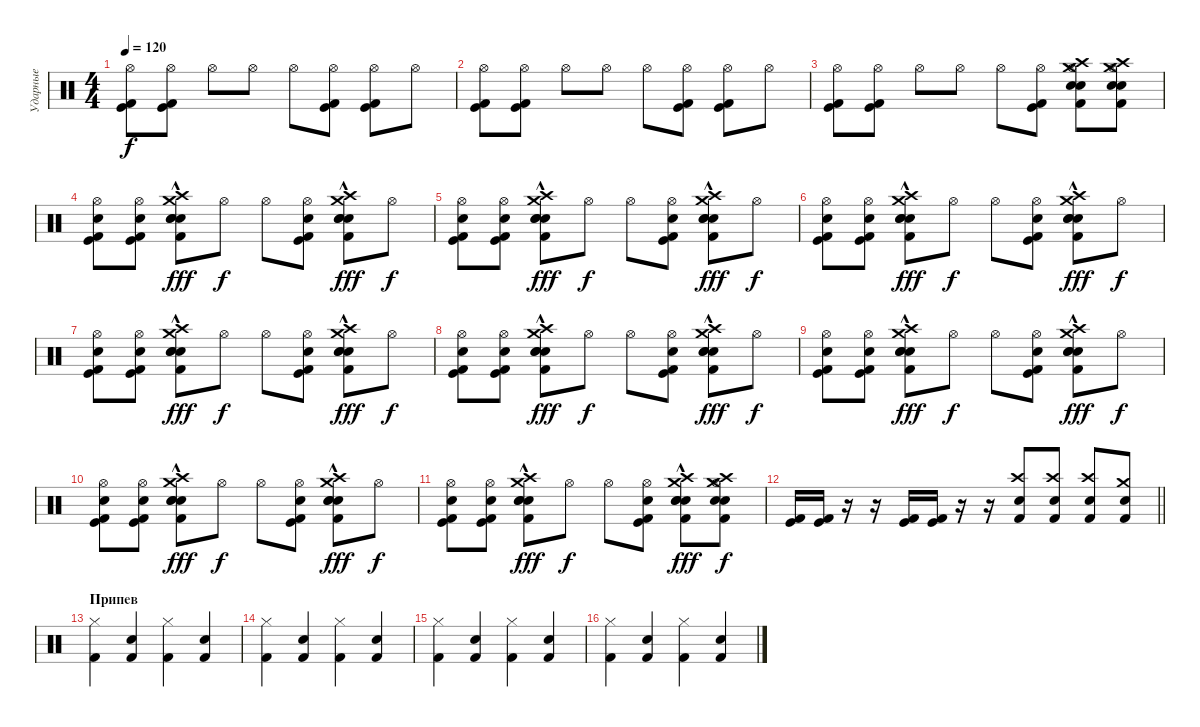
\track ("Ударные" "Ударные") {instrument percussion}
\staff {score}
\articulation defaults
\ts (4 4)
\tempo 120
\clef neutral
\ks c
("Hi-Hat (open)" "Kick (hit)" "Kick (hit) 2").8{dy f} ("Hi-Hat (open)" "Kick (hit)" "Kick (hit) 2").8 "Hi-Hat (open)".8 "Hi-Hat (open)".8 "Hi-Hat (open)".8 ("Hi-Hat (open)" "Kick (hit)" "Kick (hit) 2").8 ("Hi-Hat (open)" "Kick (hit)" "Kick (hit) 2").8 "Hi-Hat (open)".8 |
("Hi-Hat (open)" "Kick (hit)" "Kick (hit) 2").8 ("Hi-Hat (open)" "Kick (hit)" "Kick (hit) 2").8 "Hi-Hat (open)".8 "Hi-Hat (open)".8 "Hi-Hat (open)".8 ("Hi-Hat (open)" "Kick (hit)" "Kick (hit) 2").8 ("Hi-Hat (open)" "Kick (hit)" "Kick (hit) 2").8 "Hi-Hat (open)".8 |
("Hi-Hat (open)" "Kick (hit)" "Kick (hit) 2").8 ("Hi-Hat (open)" "Kick (hit)" "Kick (hit) 2").8 "Hi-Hat (open)".8 "Hi-Hat (open)".8 "Hi-Hat (open)".8 ("Hi-Hat (open)" "Kick (hit)" "Kick (hit) 2").8 ("Hi-Hat (open)" "Electric Snare (hit)" "Crash high (hit)" "Crash medium (hit)" "Snare (hit) 2" "Kick (hit) 2").8 ("Hi-Hat (open)" "Electric Snare (hit)" "Crash high (hit)" "Crash medium (hit)" "Snare (hit) 2" "Kick (hit) 2").8 |
("Hi-Hat (open)" "Electric Snare (hit)" "Kick (hit)" "Kick (hit) 2").8 ("Hi-Hat (open)" "Electric Snare (hit)" "Kick (hit)" "Kick (hit) 2").8 ("Snare (hit) 2" "Crash high (hit)"{hac} "Crash medium (hit)"{hac} "Snare (hit) 2"{hac} "Snare (hit) 2"{hac} "Kick (hit) 2").8{dy fff} "Hi-Hat (open)".8{dy f} "Hi-Hat (open)".8 ("Hi-Hat (open)" "Electric Snare (hit)" "Kick (hit)" "Kick (hit) 2").8 ("Snare (hit) 2" "Crash high (hit)"{hac} "Crash medium (hit)"{hac} "Snare (hit) 2"{hac} "Snare (hit) 2"{hac} "Kick (hit) 2").8{dy fff} "Hi-Hat (open)".8{dy f} |
("Hi-Hat (open)" "Electric Snare (hit)" "Kick (hit)" "Kick (hit) 2").8 ("Hi-Hat (open)" "Electric Snare (hit)" "Kick (hit)" "Kick (hit) 2").8 ("Snare (hit) 2" "Crash high (hit)"{hac} "Crash medium (hit)"{hac} "Snare (hit) 2"{hac} "Snare (hit) 2"{hac} "Kick (hit) 2").8{dy fff} "Hi-Hat (open)".8{dy f} "Hi-Hat (open)".8 ("Hi-Hat (open)" "Electric Snare (hit)" "Kick (hit)" "Kick (hit) 2").8 ("Snare (hit) 2" "Crash high (hit)"{hac} "Crash medium (hit)"{hac} "Snare (hit) 2"{hac} "Snare (hit) 2"{hac} "Kick (hit) 2").8{dy fff} "Hi-Hat (open)".8{dy f} |
("Hi-Hat (open)" "Electric Snare (hit)" "Kick (hit)" "Kick (hit) 2").8 ("Hi-Hat (open)" "Electric Snare (hit)" "Kick (hit)" "Kick (hit) 2").8 ("Snare (hit) 2" "Crash high (hit)"{hac} "Crash medium (hit)"{hac} "Snare (hit) 2"{hac} "Snare (hit) 2"{hac} "Kick (hit) 2").8{dy fff} "Hi-Hat (open)".8{dy f} "Hi-Hat (open)".8 ("Hi-Hat (open)" "Electric Snare (hit)" "Kick (hit)" "Kick (hit) 2").8 ("Snare (hit) 2" "Crash high (hit)"{hac} "Crash medium (hit)"{hac} "Snare (hit) 2"{hac} "Snare (hit) 2"{hac} "Kick (hit) 2").8{dy fff} "Hi-Hat (open)".8{dy f} |
("Hi-Hat (open)" "Electric Snare (hit)" "Kick (hit)" "Kick (hit) 2").8 ("Hi-Hat (open)" "Electric Snare (hit)" "Kick (hit)" "Kick (hit) 2").8 ("Snare (hit) 2" "Crash high (hit)"{hac} "Crash medium (hit)"{hac} "Snare (hit) 2"{hac} "Snare (hit) 2"{hac} "Kick (hit) 2").8{dy fff} "Hi-Hat (open)".8{dy f} "Hi-Hat (open)".8 ("Hi-Hat (open)" "Electric Snare (hit)" "Kick (hit)" "Kick (hit) 2").8 ("Snare (hit) 2" "Crash high (hit)"{hac} "Crash medium (hit)"{hac} "Snare (hit) 2"{hac} "Snare (hit) 2"{hac} "Kick (hit) 2").8{dy fff} "Hi-Hat (open)".8{dy f} |
("Hi-Hat (open)" "Electric Snare (hit)" "Kick (hit)" "Kick (hit) 2").8 ("Hi-Hat (open)" "Electric Snare (hit)" "Kick (hit)" "Kick (hit) 2").8 ("Snare (hit) 2" "Crash high (hit)"{hac} "Crash medium (hit)"{hac} "Snare (hit) 2"{hac} "Snare (hit) 2"{hac} "Kick (hit) 2").8{dy fff} "Hi-Hat (open)".8{dy f} "Hi-Hat (open)".8 ("Hi-Hat (open)" "Electric Snare (hit)" "Kick (hit)" "Kick (hit) 2").8 ("Snare (hit) 2" "Crash high (hit)"{hac} "Crash medium (hit)"{hac} "Snare (hit) 2"{hac} "Snare (hit) 2"{hac} "Kick (hit) 2").8{dy fff} "Hi-Hat (open)".8{dy f} |
("Hi-Hat (open)" "Electric Snare (hit)" "Kick (hit)" "Kick (hit) 2").8 ("Hi-Hat (open)" "Electric Snare (hit)" "Kick (hit)" "Kick (hit) 2").8 ("Snare (hit) 2" "Crash high (hit)"{hac} "Crash medium (hit)"{hac} "Snare (hit) 2"{hac} "Snare (hit) 2"{hac} "Kick (hit) 2").8{dy fff} "Hi-Hat (open)".8{dy f} "Hi-Hat (open)".8 ("Hi-Hat (open)" "Electric Snare (hit)" "Kick (hit)" "Kick (hit) 2").8 ("Snare (hit) 2" "Crash high (hit)"{hac} "Crash medium (hit)"{hac} "Snare (hit) 2"{hac} "Snare (hit) 2"{hac} "Kick (hit) 2").8{dy fff} "Hi-Hat (open)".8{dy f} |
("Hi-Hat (open)" "Electric Snare (hit)" "Kick (hit)" "Kick (hit) 2").8 ("Hi-Hat (open)" "Electric Snare (hit)" "Kick (hit)" "Kick (hit) 2").8 ("Snare (hit) 2" "Crash high (hit)"{hac} "Crash medium (hit)"{hac} "Snare (hit) 2"{hac} "Snare (hit) 2"{hac} "Kick (hit) 2").8{dy fff} "Hi-Hat (open)".8{dy f} "Hi-Hat (open)".8 ("Hi-Hat (open)" "Electric Snare (hit)" "Kick (hit)" "Kick (hit) 2").8 ("Snare (hit) 2" "Crash high (hit)"{hac} "Crash medium (hit)"{hac} "Snare (hit) 2"{hac} "Snare (hit) 2"{hac} "Kick (hit) 2").8{dy fff} "Hi-Hat (open)".8{dy f} |
("Hi-Hat (open)" "Electric Snare (hit)" "Kick (hit)" "Kick (hit) 2").8 ("Hi-Hat (open)" "Electric Snare (hit)" "Kick (hit)" "Kick (hit) 2").8 ("Snare (hit) 2" "Crash high (hit)"{hac} "Crash medium (hit)"{hac} "Snare (hit) 2"{hac} "Snare (hit) 2"{hac} "Kick (hit) 2").8{dy fff} "Hi-Hat (open)".8{dy f} "Hi-Hat (open)".8 ("Hi-Hat (open)" "Electric Snare (hit)" "Kick (hit)" "Kick (hit) 2").8 ("Snare (hit) 2" "Crash high (hit)"{hac} "Crash medium (hit)"{hac} "Snare (hit) 2"{hac} "Snare (hit) 2"{hac} "Kick (hit) 2").8{dy fff} ("Hi-Hat (open)" "Crash high (hit)" "Crash medium (hit)" "Snare (hit) 2" "Electric Snare (hit)" "Kick (hit) 2").8{dy f} |
\barLineRight lightlight
("Kick (hit)" "Kick (hit) 2").16 ("Kick (hit)" "Kick (hit) 2").16 r.16 r.16 ("Kick (hit)" "Kick (hit) 2").16 ("Kick (hit)" "Kick (hit) 2").16 r.16 r.16 ("Crash high (hit)" "Snare (hit) 2" "Kick (hit) 2").8 ("Crash high (hit)" "Snare (hit) 2" "Kick (hit) 2").8 ("Crash high (hit)" "Snare (hit) 2" "Kick (hit) 2").8 ("Crash medium (hit)" "Snare (hit) 2" "Kick (hit) 2").8 |
\section ("" "Припев")
("Hi-Hat (closed)" "Kick (hit) 2").4 ("Snare (hit) 2" "Kick (hit) 2").4 ("Hi-Hat (closed)" "Kick (hit) 2").4 ("Snare (hit) 2" "Kick (hit) 2").4 |
("Hi-Hat (closed)" "Kick (hit) 2").4 ("Snare (hit) 2" "Kick (hit) 2").4 ("Hi-Hat (closed)" "Kick (hit) 2").4 ("Snare (hit) 2" "Kick (hit) 2").4 |
("Hi-Hat (closed)" "Kick (hit) 2").4 ("Snare (hit) 2" "Kick (hit) 2").4 ("Hi-Hat (closed)" "Kick (hit) 2").4 ("Snare (hit) 2" "Kick (hit) 2").4 |
("Hi-Hat (closed)" "Kick (hit) 2").4 ("Snare (hit) 2" "Kick (hit) 2").4 ("Hi-Hat (closed)" "Kick (hit) 2").4 ("Snare (hit) 2" "Kick (hit) 2").4
